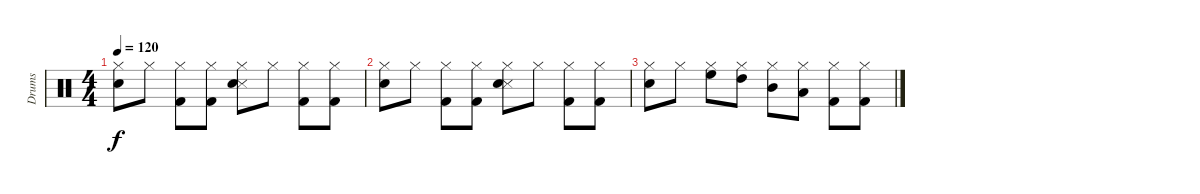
\track ("Drums" "Drums") {instrument percussion}
\staff {score}
\articulation defaults
\ts (4 4)
\tempo 120
\clef neutral
\ks c
("Hi-Hat (closed)" "Electric Snare (hit)").8{dy f} "Hi-Hat (closed)".8 ("Hi-Hat (closed)" "Kick (hit) 2").8 ("Hi-Hat (closed)" "Kick (hit) 2").8 ("Hi-Hat (closed)" "Snare (side stick) 3" "Snare (hit) 2").8 "Hi-Hat (closed)".8 ("Hi-Hat (closed)" "Kick (hit) 2").8 ("Hi-Hat (closed)" "Kick (hit) 2").8 |
("Hi-Hat (closed)" "Electric Snare (hit)").8 "Hi-Hat (closed)".8 ("Hi-Hat (closed)" "Kick (hit) 2").8 ("Hi-Hat (closed)" "Kick (hit) 2").8 ("Hi-Hat (closed)" "Snare (side stick) 3" "Snare (hit) 2").8 "Hi-Hat (closed)".8 ("Hi-Hat (closed)" "Kick (hit) 2").8 ("Hi-Hat (closed)" "Kick (hit) 2").8 |
("Hi-Hat (closed)" "Electric Snare (hit)").8 "Hi-Hat (closed)".8 ("Hi-Hat (closed)" "High Floor Tom (hit)").8 ("Hi-Hat (closed)" "High Tom (hit)").8 ("Hi-Hat (closed)" "Mid Tom (hit)").8 ("Hi-Hat (closed)" "Low Tom (hit)").8 ("Hi-Hat (closed)" "Kick (hit) 2").8 ("Hi-Hat (closed)" "Kick (hit) 2").8
